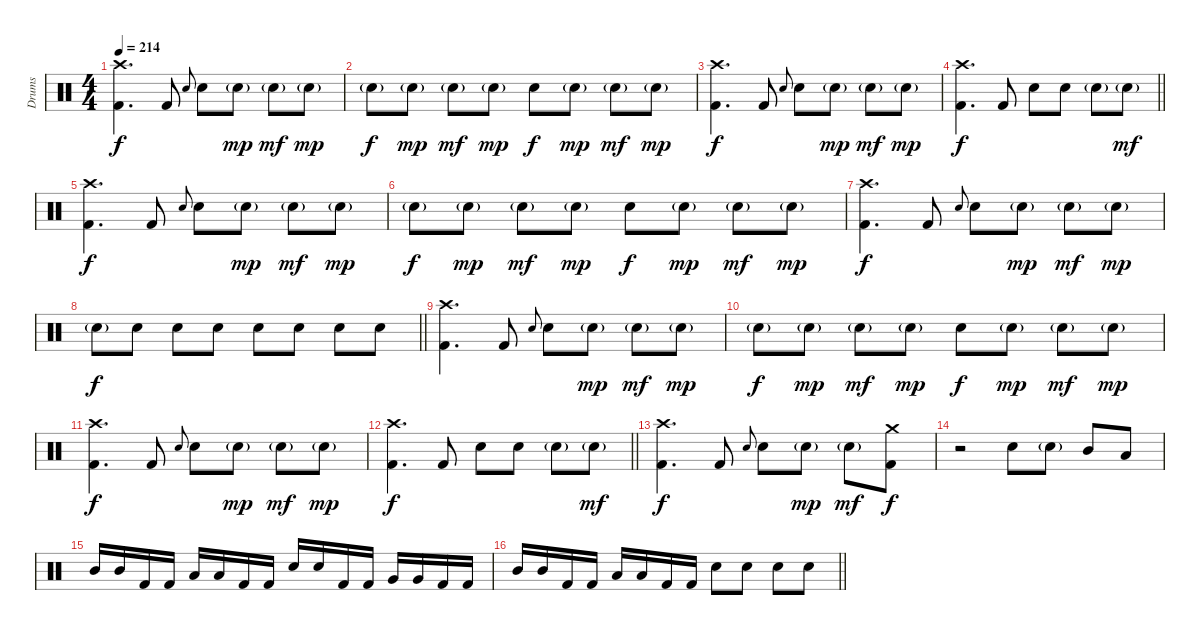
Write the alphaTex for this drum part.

\track ("Drums" "Drums") {instrument percussion}
\staff {score}
\articulation defaults
\ts (4 4)
\section ("" "")
\tempo 214
\clef neutral
\ks c
("Crash high (hit)" "Kick (hit) 2").4{d dy f} "Kick (hit) 2".8 "Electric Snare (hit)".8{gr onbeat} "Electric Snare (hit)".8 "Electric Snare (hit)"{g}.8{dy mp} "Electric Snare (hit)"{g}.8{dy mf} "Electric Snare (hit)"{g}.8{dy mp} |
"Electric Snare (hit)"{g}.8{dy f} "Electric Snare (hit)"{g}.8{dy mp} "Electric Snare (hit)"{g}.8{dy mf} "Electric Snare (hit)"{g}.8{dy mp} "Electric Snare (hit)".8{dy f} "Electric Snare (hit)"{g}.8{dy mp} "Electric Snare (hit)"{g}.8{dy mf} "Electric Snare (hit)"{g}.8{dy mp} |
("Crash high (hit)" "Kick (hit) 2").4{d dy f} "Kick (hit) 2".8 "Electric Snare (hit)".8{gr onbeat} "Electric Snare (hit)".8 "Electric Snare (hit)"{g}.8{dy mp} "Electric Snare (hit)"{g}.8{dy mf} "Electric Snare (hit)"{g}.8{dy mp} |
\barLineRight lightlight
("Crash high (hit)" "Kick (hit) 2").4{d dy f} "Kick (hit) 2".8 "Electric Snare (hit)".8 "Electric Snare (hit)".8 "Electric Snare (hit)"{g}.8 "Electric Snare (hit)"{g}.8{dy mf} |
("Crash high (hit)" "Kick (hit) 2").4{d dy f} "Kick (hit) 2".8 "Electric Snare (hit)".8{gr onbeat} "Electric Snare (hit)".8 "Electric Snare (hit)"{g}.8{dy mp} "Electric Snare (hit)"{g}.8{dy mf} "Electric Snare (hit)"{g}.8{dy mp} |
"Electric Snare (hit)"{g}.8{dy f} "Electric Snare (hit)"{g}.8{dy mp} "Electric Snare (hit)"{g}.8{dy mf} "Electric Snare (hit)"{g}.8{dy mp} "Electric Snare (hit)".8{dy f} "Electric Snare (hit)"{g}.8{dy mp} "Electric Snare (hit)"{g}.8{dy mf} "Electric Snare (hit)"{g}.8{dy mp} |
("Crash high (hit)" "Kick (hit) 2").4{d dy f} "Kick (hit) 2".8 "Electric Snare (hit)".8{gr onbeat} "Electric Snare (hit)".8 "Electric Snare (hit)"{g}.8{dy mp} "Electric Snare (hit)"{g}.8{dy mf} "Electric Snare (hit)"{g}.8{dy mp} |
\barLineRight lightlight "Electric Snare (hit)"{g}.8{dy f} "Electric Snare (hit)".8 "Electric Snare (hit)".8 "Electric Snare (hit)".8 "Electric Snare (hit)".8 "Electric Snare (hit)".8 "Electric Snare (hit)".8 "Electric Snare (hit)".8
|
\section ("" "")
("Crash high (hit)" "Kick (hit) 2").4{d} "Kick (hit) 2".8 "Electric Snare (hit)".8{gr onbeat} "Electric Snare (hit)".8 "Electric Snare (hit)"{g}.8{dy mp} "Electric Snare (hit)"{g}.8{dy mf} "Electric Snare (hit)"{g}.8{dy mp} |
"Electric Snare (hit)"{g}.8{dy f} "Electric Snare (hit)"{g}.8{dy mp} "Electric Snare (hit)"{g}.8{dy mf} "Electric Snare (hit)"{g}.8{dy mp} "Electric Snare (hit)".8{dy f} "Electric Snare (hit)"{g}.8{dy mp} "Electric Snare (hit)"{g}.8{dy mf} "Electric Snare (hit)"{g}.8{dy mp} |
("Crash high (hit)" "Kick (hit) 2").4{d dy f} "Kick (hit) 2".8 "Electric Snare (hit)".8{gr onbeat} "Electric Snare (hit)".8 "Electric Snare (hit)"{g}.8{dy mp} "Electric Snare (hit)"{g}.8{dy mf} "Electric Snare (hit)"{g}.8{dy mp} |
\barLineRight lightlight
("Crash high (hit)" "Kick (hit) 2").4{d dy f} "Kick (hit) 2".8 "Electric Snare (hit)".8 "Electric Snare (hit)".8 "Electric Snare (hit)"{g}.8 "Electric Snare (hit)"{g}.8{dy mf} |
("Crash high (hit)" "Kick (hit) 2").4{d dy f} "Kick (hit) 2".8 "Electric Snare (hit)".8{gr onbeat} "Electric Snare (hit)".8 "Electric Snare (hit)"{g}.8{dy mp} "Electric Snare (hit)"{g}.8{dy mf} ("Crash medium (hit)" "Kick (hit) 2").8{dy f} |
r.2 "Electric Snare (hit)".8 "Electric Snare (hit)"{g}.8 "Mid Tom (hit)".8 "Low Tom (hit)".8 |
"Mid Tom (hit)".16 "Mid Tom (hit)".16 "Kick (hit) 2".16 "Kick (hit) 2".16 "Low Tom (hit)".16 "Low Tom (hit)".16 "Kick (hit) 2".16 "Kick (hit) 2".16 "Electric Snare (hit)".16 "Electric Snare (hit)".16 "Kick (hit) 2".16 "Kick (hit) 2".16 "Very Low Tom (hit)".16 "Very Low Tom (hit)".16 "Kick (hit) 2".16 "Kick (hit) 2".16 |
\barLineRight lightlight "Mid Tom (hit)".16 "Mid Tom (hit)".16 "Kick (hit) 2".16 "Kick (hit) 2".16 "Low Tom (hit)".16 "Low Tom (hit)".16 "Kick (hit) 2".16 "Kick (hit) 2".16 "Electric Snare (hit)".8 "Electric Snare (hit)".8 "Electric Snare (hit)".8 "Electric Snare (hit)".8
